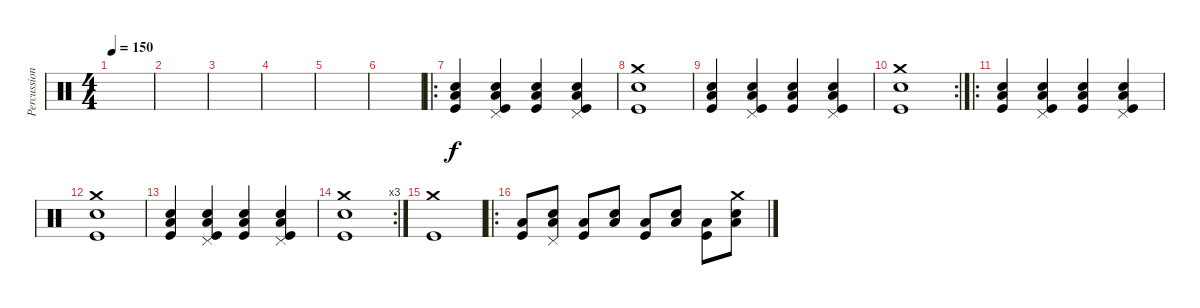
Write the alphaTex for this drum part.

\track ("Percussions" "Percussion") {instrument percussion}
\staff {score}
\articulation defaults
\ts (4 4)
\tempo 150
\clef neutral
\ks c
|
|
|
|
|
|
\ro
("Snare (hit) 2" "Low Floor Tom (hit)" "Kick (hit)").4 ("Snare (hit) 2" "Low Floor Tom (hit)" "Kick (hit)" "Pedal Hi-Hat (hit)").4 ("Snare (hit) 2" "Low Floor Tom (hit)" "Kick (hit)").4 ("Snare (hit) 2" "Low Floor Tom (hit)" "Kick (hit)" "Pedal Hi-Hat (hit)").4 |
("Kick (hit)" "Crash medium (hit)" "Snare (hit) 2").1 |
("Snare (hit) 2" "Low Floor Tom (hit)" "Kick (hit)").4 ("Snare (hit) 2" "Low Floor Tom (hit)" "Kick (hit)" "Pedal Hi-Hat (hit)").4 ("Snare (hit) 2" "Low Floor Tom (hit)" "Kick (hit)").4 ("Snare (hit) 2" "Low Floor Tom (hit)" "Kick (hit)" "Pedal Hi-Hat (hit)").4 |
\rc 2
("Snare (hit) 2" "Crash medium (hit)" "Kick (hit)").1 |
\ro
("Snare (hit) 2" "Low Floor Tom (hit)" "Kick (hit)").4 ("Snare (hit) 2" "Low Floor Tom (hit)" "Kick (hit)" "Pedal Hi-Hat (hit)").4 ("Snare (hit) 2" "Low Floor Tom (hit)" "Kick (hit)").4 ("Snare (hit) 2" "Low Floor Tom (hit)" "Kick (hit)" "Pedal Hi-Hat (hit)").4 |
("Kick (hit)" "Crash medium (hit)" "Snare (hit) 2").1 |
("Snare (hit) 2" "Low Floor Tom (hit)" "Kick (hit)").4 ("Snare (hit) 2" "Low Floor Tom (hit)" "Kick (hit)" "Pedal Hi-Hat (hit)").4 ("Snare (hit) 2" "Low Floor Tom (hit)" "Kick (hit)").4 ("Snare (hit) 2" "Low Floor Tom (hit)" "Kick (hit)" "Pedal Hi-Hat (hit)").4 |
\rc 3
("Snare (hit) 2" "Crash medium (hit)" "Kick (hit)").1 |
("Crash medium (hit)" "Kick (hit)").1 |
\ro
("Low Floor Tom (hit)" "Kick (hit)").8 ("Low Floor Tom (hit)" "Snare (hit) 2" "Pedal Hi-Hat (hit)").8 ("Low Floor Tom (hit)" "Kick (hit)").8 ("Low Floor Tom (hit)" "Snare (hit) 2").8 ("Low Floor Tom (hit)" "Kick (hit)").8 ("Low Floor Tom (hit)" "Snare (hit) 2").8 ("Low Floor Tom (hit)" "Kick (hit)").8 ("Low Floor Tom (hit)" "Snare (hit) 2" "Crash medium (hit)").8
